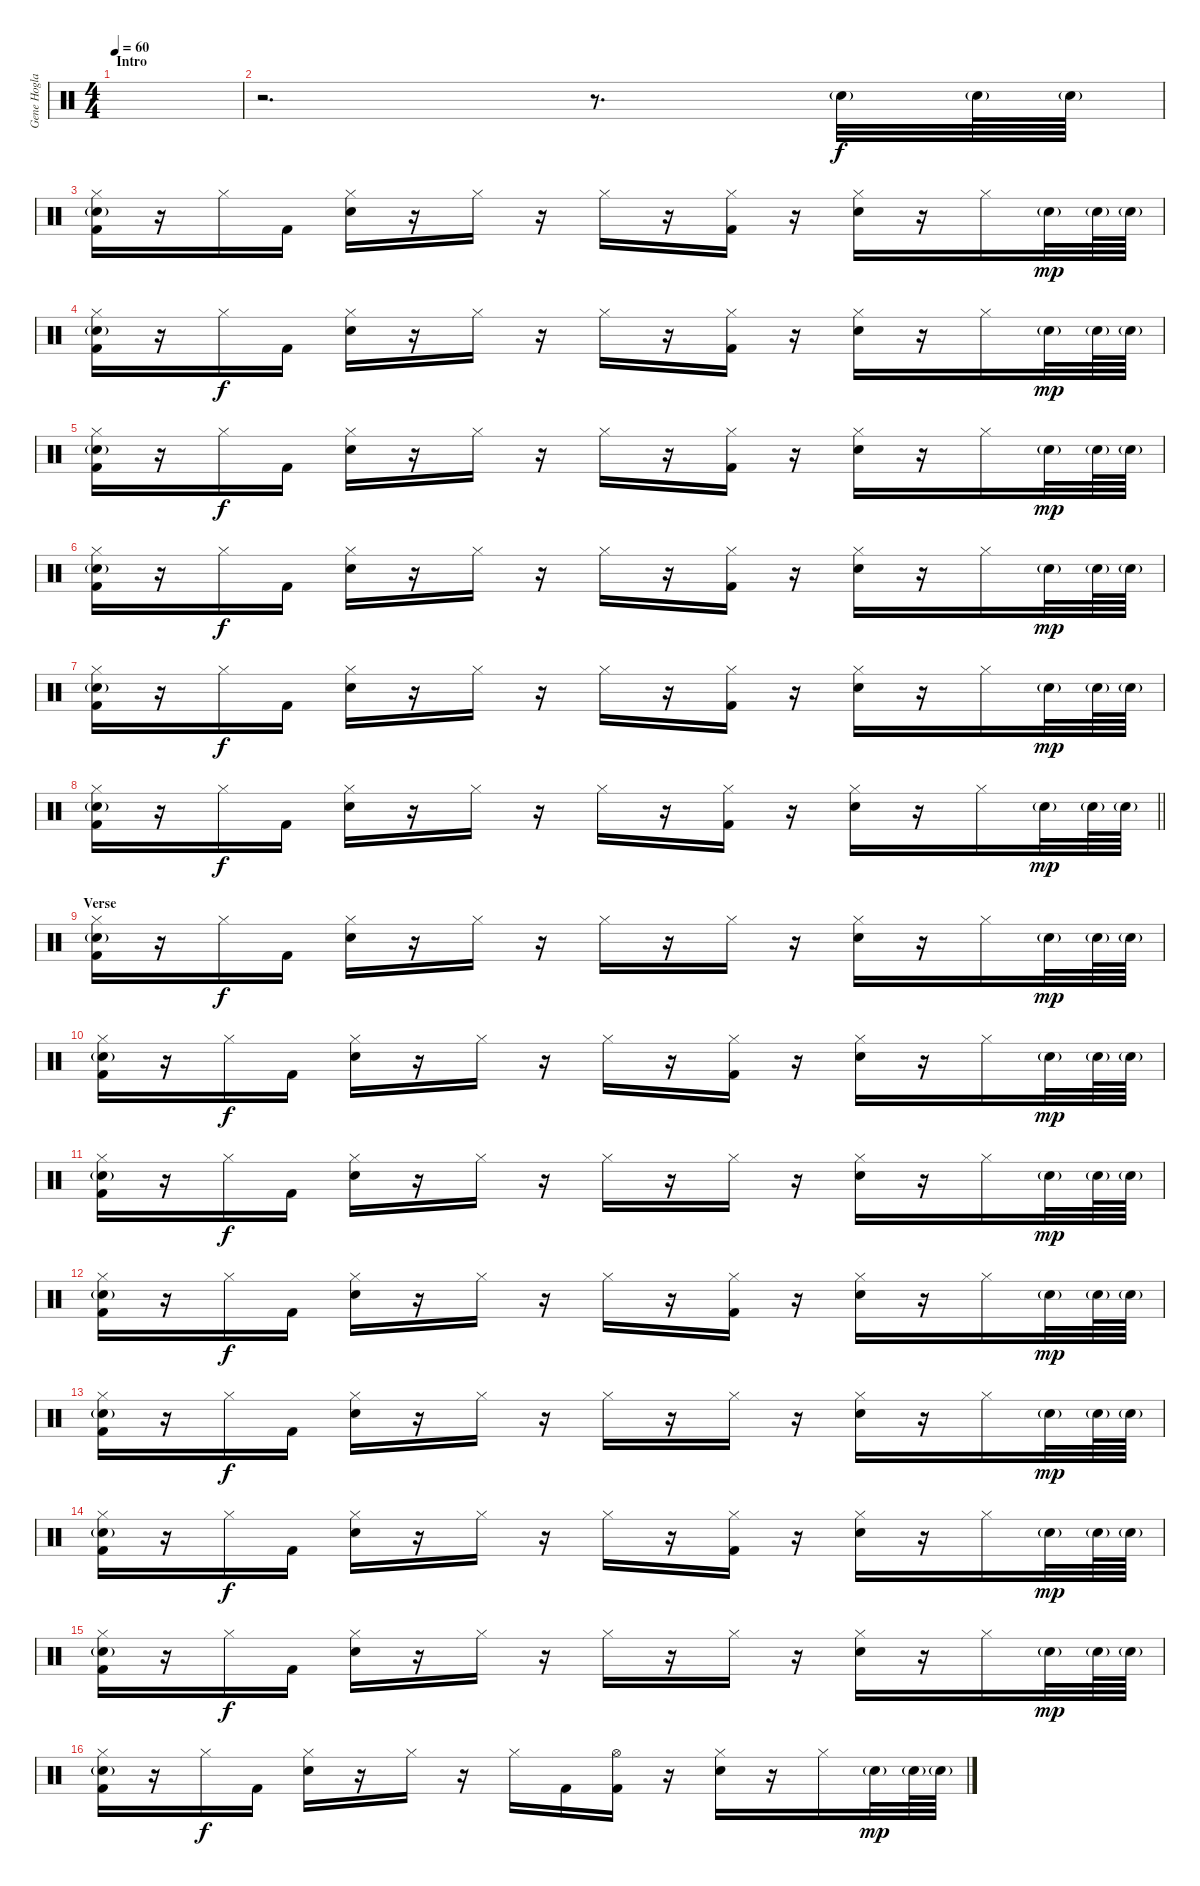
\track ("Gene Hoglan" "Gene Hogla") {instrument percussion}
\staff {score}
\articulation defaults
\ts (4 4)
\section ("" "Intro")
\tempo 60
\clef neutral
\ks c
|
r.2{d} r.8{d} "Snare (hit) 2"{g}.32 "Snare (hit) 2"{g}.64 "Snare (hit) 2"{g}.64 |
("Hi-Hat (closed)" "Snare (hit) 2"{g} "Kick (hit) 2").16 r.16 "Hi-Hat (closed)".16{dy f} "Kick (hit) 2".16 ("Hi-Hat (closed)" "Snare (hit) 2").16 r.16 "Hi-Hat (closed)".16 r.16 "Hi-Hat (closed)".16 r.16 ("Hi-Hat (closed)" "Kick (hit) 2").16 r.16 ("Hi-Hat (closed)" "Snare (hit) 2").16 r.16 "Hi-Hat (closed)".16 "Snare (hit) 2"{g}.32{dy mp} "Snare (hit) 2"{g}.64 "Snare (hit) 2"{g}.64 |
("Hi-Hat (closed)" "Snare (hit) 2"{g} "Kick (hit) 2").16 r.16 "Hi-Hat (closed)".16{dy f} "Kick (hit) 2".16 ("Hi-Hat (closed)" "Snare (hit) 2").16 r.16 "Hi-Hat (closed)".16 r.16 "Hi-Hat (closed)".16 r.16 ("Hi-Hat (closed)" "Kick (hit) 2").16 r.16 ("Hi-Hat (closed)" "Snare (hit) 2").16 r.16 "Hi-Hat (closed)".16 "Snare (hit) 2"{g}.32{dy mp} "Snare (hit) 2"{g}.64 "Snare (hit) 2"{g}.64 |
("Hi-Hat (closed)" "Snare (hit) 2"{g} "Kick (hit) 2").16 r.16 "Hi-Hat (closed)".16{dy f} "Kick (hit) 2".16 ("Hi-Hat (closed)" "Snare (hit) 2").16 r.16 "Hi-Hat (closed)".16 r.16 "Hi-Hat (closed)".16 r.16 ("Hi-Hat (closed)" "Kick (hit) 2").16 r.16 ("Hi-Hat (closed)" "Snare (hit) 2").16 r.16 "Hi-Hat (closed)".16 "Snare (hit) 2"{g}.32{dy mp} "Snare (hit) 2"{g}.64 "Snare (hit) 2"{g}.64 |
("Hi-Hat (closed)" "Snare (hit) 2"{g} "Kick (hit) 2").16 r.16 "Hi-Hat (closed)".16{dy f} "Kick (hit) 2".16 ("Hi-Hat (closed)" "Snare (hit) 2").16 r.16 "Hi-Hat (closed)".16 r.16 "Hi-Hat (closed)".16 r.16 ("Hi-Hat (closed)" "Kick (hit) 2").16 r.16 ("Hi-Hat (closed)" "Snare (hit) 2").16 r.16 "Hi-Hat (closed)".16 "Snare (hit) 2"{g}.32{dy mp} "Snare (hit) 2"{g}.64 "Snare (hit) 2"{g}.64 |
("Hi-Hat (closed)" "Snare (hit) 2"{g} "Kick (hit) 2").16 r.16 "Hi-Hat (closed)".16{dy f} "Kick (hit) 2".16 ("Hi-Hat (closed)" "Snare (hit) 2").16 r.16 "Hi-Hat (closed)".16 r.16 "Hi-Hat (closed)".16 r.16 ("Hi-Hat (closed)" "Kick (hit) 2").16 r.16 ("Hi-Hat (closed)" "Snare (hit) 2").16 r.16 "Hi-Hat (closed)".16 "Snare (hit) 2"{g}.32{dy mp} "Snare (hit) 2"{g}.64 "Snare (hit) 2"{g}.64 |
\barLineRight lightlight
("Hi-Hat (closed)" "Snare (hit) 2"{g} "Kick (hit) 2").16 r.16 "Hi-Hat (closed)".16{dy f} "Kick (hit) 2".16 ("Hi-Hat (closed)" "Snare (hit) 2").16 r.16 "Hi-Hat (closed)".16 r.16 "Hi-Hat (closed)".16 r.16 ("Hi-Hat (closed)" "Kick (hit) 2").16 r.16 ("Hi-Hat (closed)" "Snare (hit) 2").16 r.16 "Hi-Hat (closed)".16 "Snare (hit) 2"{g}.32{dy mp} "Snare (hit) 2"{g}.64 "Snare (hit) 2"{g}.64 |
\section ("" "Verse")
("Hi-Hat (closed)" "Snare (hit) 2"{g} "Kick (hit) 2").16 r.16 "Hi-Hat (closed)".16{dy f} "Kick (hit) 2".16 ("Hi-Hat (closed)" "Snare (hit) 2").16 r.16 "Hi-Hat (closed)".16 r.16 "Hi-Hat (closed)".16 r.16 "Hi-Hat (closed)".16 r.16 ("Hi-Hat (closed)" "Snare (hit) 2").16 r.16 "Hi-Hat (closed)".16 "Snare (hit) 2"{g}.32{dy mp} "Snare (hit) 2"{g}.64 "Snare (hit) 2"{g}.64 |
("Hi-Hat (closed)" "Snare (hit) 2"{g} "Kick (hit) 2").16 r.16 "Hi-Hat (closed)".16{dy f} "Kick (hit) 2".16 ("Hi-Hat (closed)" "Snare (hit) 2").16 r.16 "Hi-Hat (closed)".16 r.16 "Hi-Hat (closed)".16 r.16 ("Hi-Hat (closed)" "Kick (hit) 2").16 r.16 ("Hi-Hat (closed)" "Snare (hit) 2").16 r.16 "Hi-Hat (closed)".16 "Snare (hit) 2"{g}.32{dy mp} "Snare (hit) 2"{g}.64 "Snare (hit) 2"{g}.64 |
("Hi-Hat (closed)" "Snare (hit) 2"{g} "Kick (hit) 2").16 r.16 "Hi-Hat (closed)".16{dy f} "Kick (hit) 2".16 ("Hi-Hat (closed)" "Snare (hit) 2").16 r.16 "Hi-Hat (closed)".16 r.16 "Hi-Hat (closed)".16 r.16 "Hi-Hat (closed)".16 r.16 ("Hi-Hat (closed)" "Snare (hit) 2").16 r.16 "Hi-Hat (closed)".16 "Snare (hit) 2"{g}.32{dy mp} "Snare (hit) 2"{g}.64 "Snare (hit) 2"{g}.64 |
("Hi-Hat (closed)" "Snare (hit) 2"{g} "Kick (hit) 2").16 r.16 "Hi-Hat (closed)".16{dy f} "Kick (hit) 2".16 ("Hi-Hat (closed)" "Snare (hit) 2").16 r.16 "Hi-Hat (closed)".16 r.16 "Hi-Hat (closed)".16 r.16 ("Hi-Hat (closed)" "Kick (hit) 2").16 r.16 ("Hi-Hat (closed)" "Snare (hit) 2").16 r.16 "Hi-Hat (closed)".16 "Snare (hit) 2"{g}.32{dy mp} "Snare (hit) 2"{g}.64 "Snare (hit) 2"{g}.64 |
("Hi-Hat (closed)" "Snare (hit) 2"{g} "Kick (hit) 2").16 r.16 "Hi-Hat (closed)".16{dy f} "Kick (hit) 2".16 ("Hi-Hat (closed)" "Snare (hit) 2").16 r.16 "Hi-Hat (closed)".16 r.16 "Hi-Hat (closed)".16 r.16 "Hi-Hat (closed)".16 r.16 ("Hi-Hat (closed)" "Snare (hit) 2").16 r.16 "Hi-Hat (closed)".16 "Snare (hit) 2"{g}.32{dy mp} "Snare (hit) 2"{g}.64 "Snare (hit) 2"{g}.64 |
("Hi-Hat (closed)" "Snare (hit) 2"{g} "Kick (hit) 2").16 r.16 "Hi-Hat (closed)".16{dy f} "Kick (hit) 2".16 ("Hi-Hat (closed)" "Snare (hit) 2").16 r.16 "Hi-Hat (closed)".16 r.16 "Hi-Hat (closed)".16 r.16 ("Hi-Hat (closed)" "Kick (hit) 2").16 r.16 ("Hi-Hat (closed)" "Snare (hit) 2").16 r.16 "Hi-Hat (closed)".16 "Snare (hit) 2"{g}.32{dy mp} "Snare (hit) 2"{g}.64 "Snare (hit) 2"{g}.64 |
("Hi-Hat (closed)" "Snare (hit) 2"{g} "Kick (hit) 2").16 r.16 "Hi-Hat (closed)".16{dy f} "Kick (hit) 2".16 ("Hi-Hat (closed)" "Snare (hit) 2").16 r.16 "Hi-Hat (closed)".16 r.16 "Hi-Hat (closed)".16 r.16 "Hi-Hat (closed)".16 r.16 ("Hi-Hat (closed)" "Snare (hit) 2").16 r.16 "Hi-Hat (closed)".16 "Snare (hit) 2"{g}.32{dy mp} "Snare (hit) 2"{g}.64 "Snare (hit) 2"{g}.64 |
("Hi-Hat (closed)" "Snare (hit) 2"{g} "Kick (hit) 2").16 r.16 "Hi-Hat (closed)".16{dy f} "Kick (hit) 2".16 ("Hi-Hat (closed)" "Snare (hit) 2").16 r.16 "Hi-Hat (closed)".16 r.16 "Hi-Hat (closed)".16 "Kick (hit) 2".16 ("Hi-Hat (open)" "Kick (hit) 2").16 r.16 ("Hi-Hat (closed)" "Snare (hit) 2").16 r.16 "Hi-Hat (closed)".16 "Snare (hit) 2"{g}.32{dy mp} "Snare (hit) 2"{g}.64 "Snare (hit) 2"{g}.64
